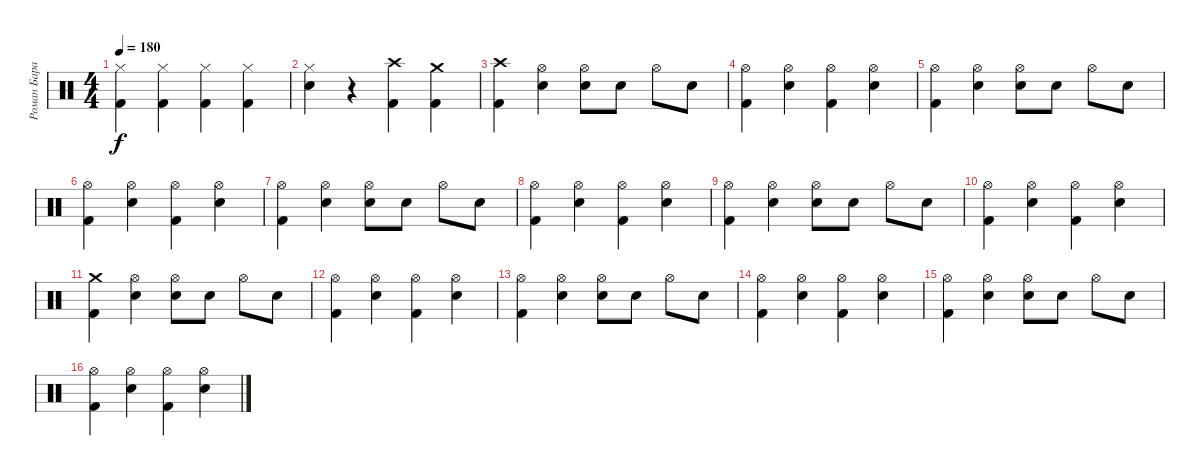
\track ("Роман Баранюк" "Роман Бара") {instrument percussion}
\staff {score}
\articulation defaults
\ts (4 4)
\tempo 180
\clef neutral
\ks c
("Hi-Hat (closed)" "Kick (hit) 2").4{dy f} ("Hi-Hat (closed)" "Kick (hit) 2").4 ("Hi-Hat (closed)" "Kick (hit) 2").4 ("Hi-Hat (closed)" "Kick (hit) 2").4 |
("Hi-Hat (closed)" "Snare (hit) 2").4 r.4 ("Crash high (hit)" "Kick (hit) 2").4 ("Crash medium (hit)" "Kick (hit) 2").4 |
("Crash high (hit)" "Kick (hit) 2").4 ("Hi-Hat (open)" "Snare (hit) 2").4 ("Hi-Hat (open)" "Snare (hit) 2").8 "Snare (hit) 2".8 "Hi-Hat (open)".8 "Snare (hit) 2".8 |
("Hi-Hat (open)" "Kick (hit) 2").4 ("Hi-Hat (open)" "Snare (hit) 2").4 ("Hi-Hat (open)" "Kick (hit) 2").4 ("Hi-Hat (open)" "Snare (hit) 2").4 |
("Hi-Hat (open)" "Kick (hit) 2").4 ("Hi-Hat (open)" "Snare (hit) 2").4 ("Hi-Hat (open)" "Snare (hit) 2").8 "Snare (hit) 2".8 "Hi-Hat (open)".8 "Snare (hit) 2".8 |
("Hi-Hat (open)" "Kick (hit) 2").4 ("Hi-Hat (open)" "Snare (hit) 2").4 ("Hi-Hat (open)" "Kick (hit) 2").4 ("Hi-Hat (open)" "Snare (hit) 2").4 |
("Hi-Hat (open)" "Kick (hit) 2").4 ("Hi-Hat (open)" "Snare (hit) 2").4 ("Hi-Hat (open)" "Snare (hit) 2").8 "Snare (hit) 2".8 "Hi-Hat (open)".8 "Snare (hit) 2".8 |
("Hi-Hat (open)" "Kick (hit) 2").4 ("Hi-Hat (open)" "Snare (hit) 2").4 ("Hi-Hat (open)" "Kick (hit) 2").4 ("Hi-Hat (open)" "Snare (hit) 2").4 |
("Hi-Hat (open)" "Kick (hit) 2").4 ("Hi-Hat (open)" "Snare (hit) 2").4 ("Hi-Hat (open)" "Snare (hit) 2").8 "Snare (hit) 2".8 "Hi-Hat (open)".8 "Snare (hit) 2".8 |
("Hi-Hat (open)" "Kick (hit) 2").4 ("Hi-Hat (open)" "Snare (hit) 2").4 ("Hi-Hat (open)" "Kick (hit) 2").4 ("Hi-Hat (open)" "Snare (hit) 2").4 |
("Crash medium (hit)" "Kick (hit) 2").4 ("Hi-Hat (open)" "Snare (hit) 2").4 ("Hi-Hat (open)" "Snare (hit) 2").8 "Snare (hit) 2".8 "Hi-Hat (open)".8 "Snare (hit) 2".8 |
("Hi-Hat (open)" "Kick (hit) 2").4 ("Hi-Hat (open)" "Snare (hit) 2").4 ("Hi-Hat (open)" "Kick (hit) 2").4 ("Hi-Hat (open)" "Snare (hit) 2").4 |
("Hi-Hat (open)" "Kick (hit) 2").4 ("Hi-Hat (open)" "Snare (hit) 2").4 ("Hi-Hat (open)" "Snare (hit) 2").8 "Snare (hit) 2".8 "Hi-Hat (open)".8 "Snare (hit) 2".8 |
("Hi-Hat (open)" "Kick (hit) 2").4 ("Hi-Hat (open)" "Snare (hit) 2").4 ("Hi-Hat (open)" "Kick (hit) 2").4 ("Hi-Hat (open)" "Snare (hit) 2").4 |
("Hi-Hat (open)" "Kick (hit) 2").4 ("Hi-Hat (open)" "Snare (hit) 2").4 ("Hi-Hat (open)" "Snare (hit) 2").8 "Snare (hit) 2".8 "Hi-Hat (open)".8 "Snare (hit) 2".8 |
("Hi-Hat (open)" "Kick (hit) 2").4 ("Hi-Hat (open)" "Snare (hit) 2").4 ("Hi-Hat (open)" "Kick (hit) 2").4 ("Hi-Hat (open)" "Snare (hit) 2").4
